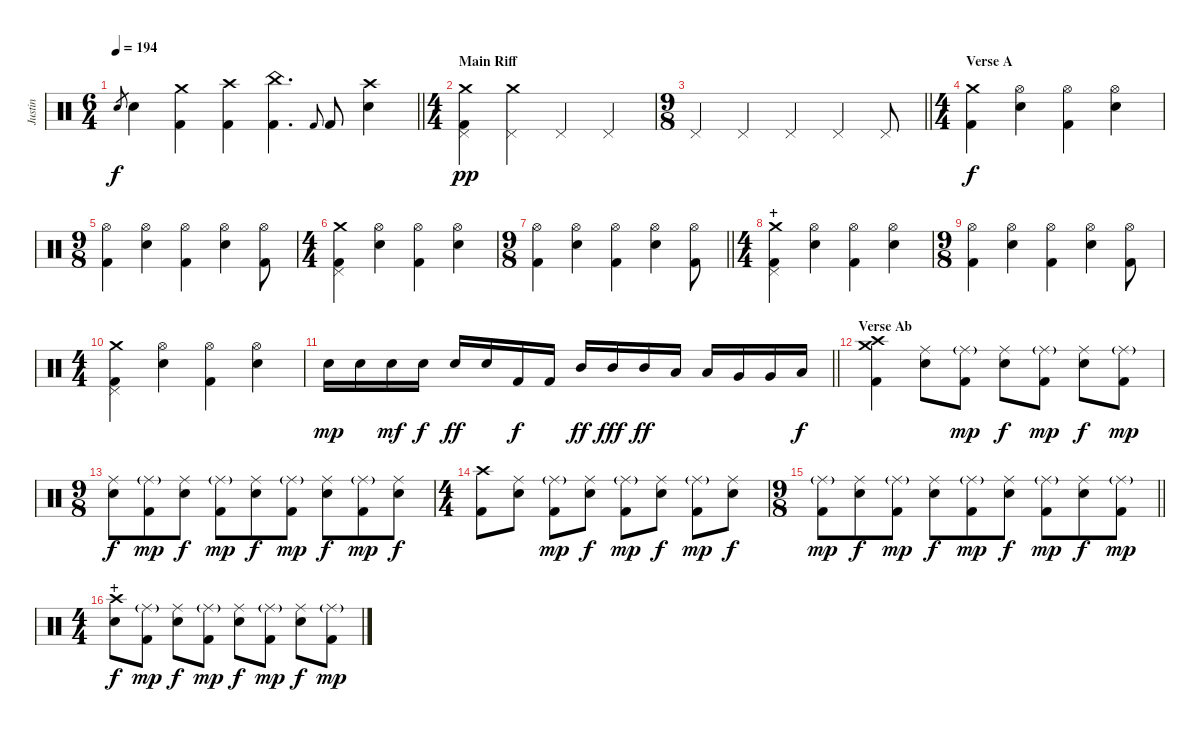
\track ("Justin" "Justin") {instrument percussion}
\staff {score}
\articulation defaults
\ts (6 4)
\tempo 194
\clef neutral
\barLineRight lightlight
\ks c "Electric Snare (hit)".8{gr dy f} "Electric Snare (hit)".4
("Crash medium (hit)" "Kick (hit) 2").4 ("Crash high (hit)" "Kick (hit) 2").4 ("China (hit)" "Kick (hit) 2").4{d} "Kick (hit) 2".8{gr onbeat} "Kick (hit) 2".8 ("Crash high (hit)" "Electric Snare (hit)").4 |
\ts (4 4)
\section ("" "Main Riff")
("Crash medium (hit)" "Pedal Hi-Hat (hit)" "Kick (hit) 2").4{dy pp} ("Crash medium (hit)" "Pedal Hi-Hat (hit)").4 "Pedal Hi-Hat (hit)".4 "Pedal Hi-Hat (hit)".4 |
\ts (9 8)
\barLineRight lightlight "Pedal Hi-Hat (hit)".4 "Pedal Hi-Hat (hit)".4 "Pedal Hi-Hat (hit)".4 "Pedal Hi-Hat (hit)".4 "Pedal Hi-Hat (hit)".8
|
\ts (4 4)
\section ("" "Verse A")
("Crash medium (hit)" "Kick (hit) 2").4{dy f} ("Hi-Hat (open)" "Electric Snare (hit)").4 ("Hi-Hat (open)" "Kick (hit) 2").4 ("Hi-Hat (open)" "Electric Snare (hit)").4 |
\ts (9 8)
("Hi-Hat (open)" "Kick (hit) 2").4 ("Hi-Hat (open)" "Electric Snare (hit)").4 ("Hi-Hat (open)" "Kick (hit) 2").4 ("Hi-Hat (open)" "Electric Snare (hit)").4 ("Hi-Hat (open)" "Kick (hit) 2").8 |
\ts (4 4)
("Crash medium (hit)" "Pedal Hi-Hat (hit)" "Kick (hit) 2").4 ("Hi-Hat (open)" "Electric Snare (hit)").4 ("Hi-Hat (open)" "Kick (hit) 2").4 ("Hi-Hat (open)" "Electric Snare (hit)").4 |
\ts (9 8)
\barLineRight lightlight
("Hi-Hat (open)" "Kick (hit) 2").4 ("Hi-Hat (open)" "Electric Snare (hit)").4 ("Hi-Hat (open)" "Kick (hit) 2").4 ("Hi-Hat (open)" "Electric Snare (hit)").4 ("Hi-Hat (open)" "Kick (hit) 2").8 |
\ts (4 4)
\section ("" "+")
("Crash medium (hit)" "Pedal Hi-Hat (hit)" "Kick (hit) 2").4 ("Hi-Hat (open)" "Electric Snare (hit)").4 ("Hi-Hat (open)" "Kick (hit) 2").4 ("Hi-Hat (open)" "Electric Snare (hit)").4 |
\ts (9 8)
("Hi-Hat (open)" "Kick (hit) 2").4 ("Hi-Hat (open)" "Electric Snare (hit)").4 ("Hi-Hat (open)" "Kick (hit) 2").4 ("Hi-Hat (open)" "Electric Snare (hit)").4 ("Hi-Hat (open)" "Kick (hit) 2").8 |
\ts (4 4)
("Crash medium (hit)" "Pedal Hi-Hat (hit)" "Kick (hit) 2").4 ("Hi-Hat (open)" "Electric Snare (hit)").4 ("Hi-Hat (open)" "Kick (hit) 2").4 ("Hi-Hat (open)" "Electric Snare (hit)").4 |
\barLineRight lightlight "Electric Snare (hit)".16{dy mp} "Electric Snare (hit)".16 "Electric Snare (hit)".16{dy mf} "Electric Snare (hit)".16{dy f} "Electric Snare (hit)".16{dy ff} "Electric Snare (hit)".16 "Kick (hit) 2".16{dy f} "Kick (hit) 2".16 "Mid Tom (hit)".16{dy ff} "Mid Tom (hit)".16{dy fff} "Mid Tom (hit)".16{dy ff} "Low Tom (hit)".16 "Low Tom (hit)".16 "Very Low Tom (hit)".16 "Very Low Tom (hit)".16 "Low Floor Tom (hit)".16{dy f}
|
\section ("" "Verse Ab")
("Crash medium (hit)" "Crash high (hit)" "Kick (hit) 2").4 ("Ride (middle)" "Electric Snare (hit)").8 ("Ride (middle)"{g} "Kick (hit) 2").8{dy mp} ("Ride (middle)" "Electric Snare (hit)").8{dy f} ("Ride (middle)"{g} "Kick (hit) 2").8{dy mp} ("Ride (middle)" "Electric Snare (hit)").8{dy f} ("Ride (middle)"{g} "Kick (hit) 2").8{dy mp} |
\ts (9 8)
("Ride (middle)" "Electric Snare (hit)").8{dy f} ("Ride (middle)"{g} "Kick (hit) 2").8{dy mp} ("Ride (middle)" "Electric Snare (hit)").8{dy f} ("Ride (middle)"{g} "Kick (hit) 2").8{dy mp} ("Ride (middle)" "Electric Snare (hit)").8{dy f} ("Ride (middle)"{g} "Kick (hit) 2").8{dy mp} ("Ride (middle)" "Electric Snare (hit)").8{dy f} ("Ride (middle)"{g} "Kick (hit) 2").8{dy mp} ("Ride (middle)" "Electric Snare (hit)").8{dy f} |
\ts (4 4)
("Crash high (hit)" "Kick (hit) 2").8 ("Ride (middle)" "Electric Snare (hit)").8 ("Ride (middle)"{g} "Kick (hit) 2").8{dy mp} ("Ride (middle)" "Electric Snare (hit)").8{dy f} ("Ride (middle)"{g} "Kick (hit) 2").8{dy mp} ("Ride (middle)" "Electric Snare (hit)").8{dy f} ("Ride (middle)"{g} "Kick (hit) 2").8{dy mp} ("Ride (middle)" "Electric Snare (hit)").8{dy f} |
\ts (9 8)
\barLineRight lightlight
("Ride (middle)"{g} "Kick (hit) 2").8{dy mp} ("Ride (middle)" "Electric Snare (hit)").8{dy f} ("Ride (middle)"{g} "Kick (hit) 2").8{dy mp} ("Ride (middle)" "Electric Snare (hit)").8{dy f} ("Ride (middle)"{g} "Kick (hit) 2").8{dy mp} ("Ride (middle)" "Electric Snare (hit)").8{dy f} ("Ride (middle)"{g} "Kick (hit) 2").8{dy mp} ("Ride (middle)" "Electric Snare (hit)").8{dy f} ("Ride (middle)"{g} "Kick (hit) 2").8{dy mp} |
\ts (4 4)
\section ("" "+")
("Crash high (hit)" "Electric Snare (hit)").8{dy f} ("Ride (middle)"{g} "Kick (hit) 2").8{dy mp} ("Ride (middle)" "Electric Snare (hit)").8{dy f} ("Ride (middle)"{g} "Kick (hit) 2").8{dy mp} ("Ride (middle)" "Electric Snare (hit)").8{dy f} ("Ride (middle)"{g} "Kick (hit) 2").8{dy mp} ("Ride (middle)" "Electric Snare (hit)").8{dy f} ("Ride (middle)"{g} "Kick (hit) 2").8{dy mp}
